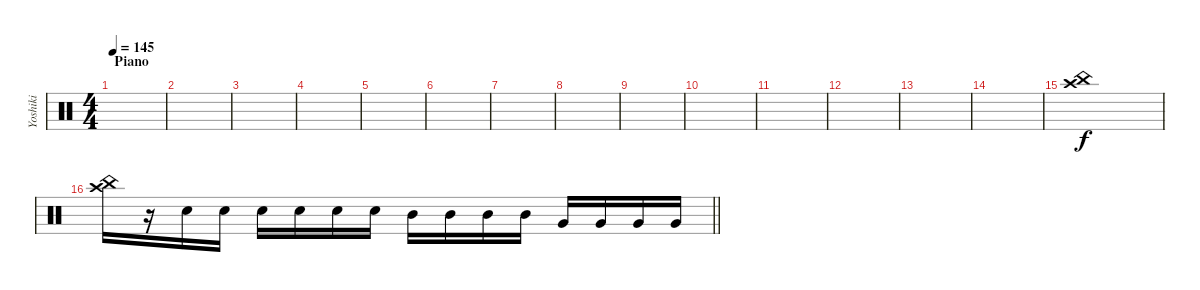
\track ("Yoshiki" "Yoshiki") {instrument percussion}
\staff {score}
\articulation defaults
\ts (4 4)
\section ("" "Piano")
\tempo 145
\clef neutral
\ks c
|
|
|
|
|
|
|
|
|
|
|
|
|
|
("Crash high (hit)" "China (hit)").1{volume 13} |
\barLineRight lightlight
("Crash high (hit)" "China (hit)").16 r.16 "Snare (hit) 2".16 "Snare (hit) 2".16 "Snare (hit) 2".16 "Snare (hit) 2".16 "Snare (hit) 2".16 "Snare (hit) 2".16 "Mid Tom (hit)".16 "Mid Tom (hit)".16 "Mid Tom (hit)".16 "Mid Tom (hit)".16 "Very Low Tom (hit)".16 "Very Low Tom (hit)".16 "Very Low Tom (hit)".16 "Very Low Tom (hit)".16
